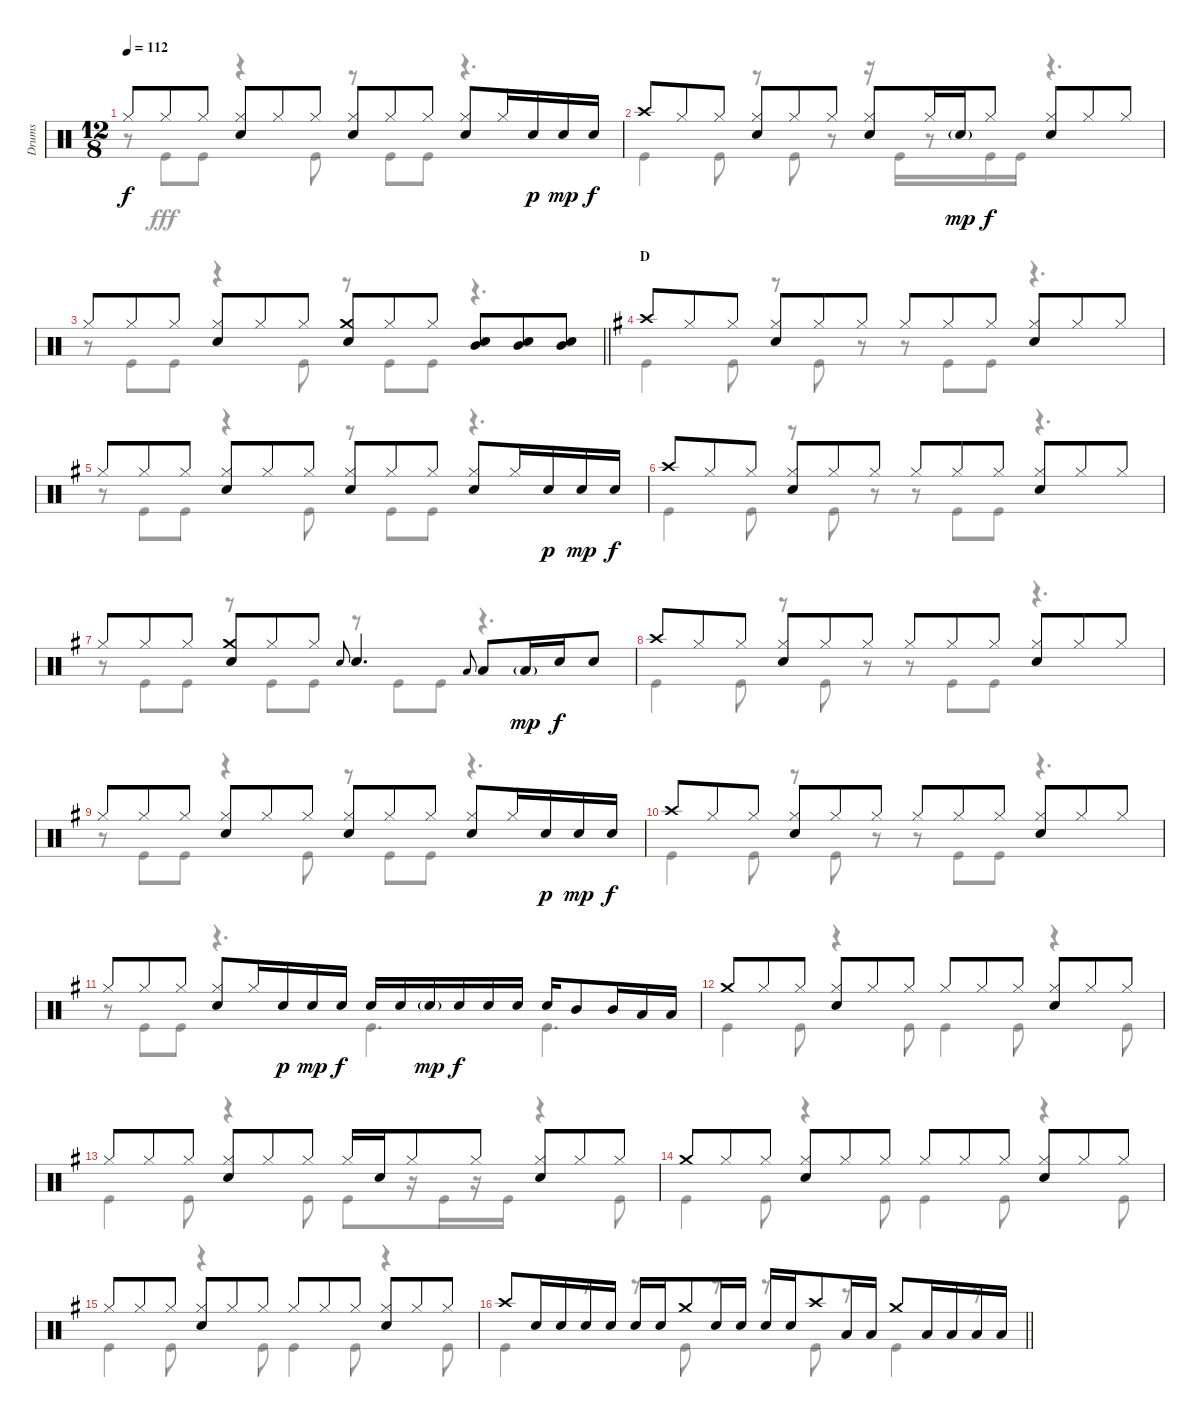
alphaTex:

\track ("Drums" "Drums") {instrument percussion}
\staff {score}
\articulation defaults
\voice
\ts (12 8)
\tempo 112
\clef neutral
\ks c "Hi-Hat (closed)".8{dy f} "Hi-Hat (closed)".8 "Hi-Hat (closed)".8
("Hi-Hat (closed)" "Snare (hit) 2").8 "Hi-Hat (closed)".8 "Hi-Hat (closed)".8 ("Hi-Hat (closed)" "Snare (hit) 2").8 "Hi-Hat (closed)".8 "Hi-Hat (closed)".8 ("Hi-Hat (closed)" "Snare (hit) 2").8 "Hi-Hat (closed)".16 "Snare (hit) 2".16{dy p} "Snare (hit) 2".16{dy mp} "Snare (hit) 2".16{dy f} |
"Crash high (hit)".8 "Hi-Hat (closed)".8 "Hi-Hat (closed)".8 ("Hi-Hat (closed)" "Snare (hit) 2").8 "Hi-Hat (closed)".8 "Hi-Hat (closed)".8 ("Hi-Hat (closed)" "Snare (hit) 2").8 "Hi-Hat (closed)".16 "Snare (hit) 2"{g}.16{dy mp} "Hi-Hat (closed)".8{dy f} ("Hi-Hat (closed)" "Snare (hit) 2").8 "Hi-Hat (closed)".8 "Hi-Hat (closed)".8 |
\barLineRight lightlight "Hi-Hat (closed)".8 "Hi-Hat (closed)".8 "Hi-Hat (closed)".8
("Hi-Hat (closed)" "Snare (hit) 2").8 "Hi-Hat (closed)".8 "Hi-Hat (closed)".8 ("Crash medium (hit)" "Snare (hit) 2").8 "Hi-Hat (closed)".8 "Hi-Hat (closed)".8 ("Mid Tom (hit)" "Snare (hit) 2").8 ("Mid Tom (hit)" "Snare (hit) 2").8 ("Mid Tom (hit)" "Snare (hit) 2").8 |
\section ("" "D")
\ks g "Crash high (hit)".8 "Hi-Hat (closed)".8 "Hi-Hat (closed)".8
("Hi-Hat (closed)" "Snare (hit) 2").8 "Hi-Hat (closed)".8 "Hi-Hat (closed)".8 "Hi-Hat (closed)".8 "Hi-Hat (closed)".8 "Hi-Hat (closed)".8 ("Hi-Hat (closed)" "Snare (hit) 2").8 "Hi-Hat (closed)".8 "Hi-Hat (closed)".8 |
"Hi-Hat (closed)".8 "Hi-Hat (closed)".8 "Hi-Hat (closed)".8 ("Hi-Hat (closed)" "Snare (hit) 2").8 "Hi-Hat (closed)".8 "Hi-Hat (closed)".8 ("Hi-Hat (closed)" "Snare (hit) 2").8 "Hi-Hat (closed)".8 "Hi-Hat (closed)".8 ("Hi-Hat (closed)" "Snare (hit) 2").8 "Hi-Hat (closed)".16 "Snare (hit) 2".16{dy p} "Snare (hit) 2".16{dy mp} "Snare (hit) 2".16{dy f} |
"Crash high (hit)".8 "Hi-Hat (closed)".8 "Hi-Hat (closed)".8 ("Hi-Hat (closed)" "Snare (hit) 2").8 "Hi-Hat (closed)".8 "Hi-Hat (closed)".8 "Hi-Hat (closed)".8 "Hi-Hat (closed)".8 "Hi-Hat (closed)".8 ("Hi-Hat (closed)" "Snare (hit) 2").8 "Hi-Hat (closed)".8 "Hi-Hat (closed)".8 |
"Hi-Hat (closed)".8 "Hi-Hat (closed)".8 "Hi-Hat (closed)".8 ("Crash medium (hit)" "Snare (hit) 2").8 "Hi-Hat (closed)".8 "Hi-Hat (closed)".8 "Snare (hit) 2".8{gr onbeat} "Snare (hit) 2".4{d} "Low Tom (hit)".8{gr onbeat} "Low Tom (hit)".8 "Low Tom (hit)"{g}.16{dy mp} "Snare (hit) 2".16{dy f} "Snare (hit) 2".8 |
"Crash high (hit)".8 "Hi-Hat (closed)".8 "Hi-Hat (closed)".8 ("Hi-Hat (closed)" "Snare (hit) 2").8 "Hi-Hat (closed)".8 "Hi-Hat (closed)".8 "Hi-Hat (closed)".8 "Hi-Hat (closed)".8 "Hi-Hat (closed)".8 ("Hi-Hat (closed)" "Snare (hit) 2").8 "Hi-Hat (closed)".8 "Hi-Hat (closed)".8 |
"Hi-Hat (closed)".8 "Hi-Hat (closed)".8 "Hi-Hat (closed)".8 ("Hi-Hat (closed)" "Snare (hit) 2").8 "Hi-Hat (closed)".8 "Hi-Hat (closed)".8 ("Hi-Hat (closed)" "Snare (hit) 2").8 "Hi-Hat (closed)".8 "Hi-Hat (closed)".8 ("Hi-Hat (closed)" "Snare (hit) 2").8 "Hi-Hat (closed)".16 "Snare (hit) 2".16{dy p} "Snare (hit) 2".16{dy mp} "Snare (hit) 2".16{dy f} |
"Crash high (hit)".8 "Hi-Hat (closed)".8 "Hi-Hat (closed)".8 ("Hi-Hat (closed)" "Snare (hit) 2").8 "Hi-Hat (closed)".8 "Hi-Hat (closed)".8 "Hi-Hat (closed)".8 "Hi-Hat (closed)".8 "Hi-Hat (closed)".8 ("Hi-Hat (closed)" "Snare (hit) 2").8 "Hi-Hat (closed)".8 "Hi-Hat (closed)".8 |
"Hi-Hat (closed)".8 "Hi-Hat (closed)".8 "Hi-Hat (closed)".8 ("Hi-Hat (closed)" "Snare (hit) 2").8 "Hi-Hat (closed)".16 "Snare (hit) 2".16{dy p} "Snare (hit) 2".16{dy mp} "Snare (hit) 2".16{dy f} "Snare (hit) 2".16 "Snare (hit) 2".16 "Snare (hit) 2"{g}.16{dy mp} "Snare (hit) 2".16{dy f} "Snare (hit) 2".16 "Snare (hit) 2".16 "Snare (hit) 2".16 "Mid Tom (hit)".8 "Mid Tom (hit)".16 "Low Tom (hit)".16 "Low Tom (hit)".16 |
"Crash medium (hit)".8 "Hi-Hat (closed)".8 "Hi-Hat (closed)".8 ("Hi-Hat (closed)" "Snare (hit) 2").8 "Hi-Hat (closed)".8 "Hi-Hat (closed)".8 "Hi-Hat (closed)".8 "Hi-Hat (closed)".8 "Hi-Hat (closed)".8 ("Hi-Hat (closed)" "Snare (hit) 2").8 "Hi-Hat (closed)".8 "Hi-Hat (closed)".8 |
"Hi-Hat (closed)".8 "Hi-Hat (closed)".8 "Hi-Hat (closed)".8 ("Hi-Hat (closed)" "Snare (hit) 2").8 "Hi-Hat (closed)".8 "Hi-Hat (closed)".8 "Hi-Hat (closed)".16 "Snare (hit) 2".16 "Hi-Hat (closed)".8 "Hi-Hat (closed)".8 ("Hi-Hat (closed)" "Snare (hit) 2").8 "Hi-Hat (closed)".8 "Hi-Hat (closed)".8 |
"Crash medium (hit)".8 "Hi-Hat (closed)".8 "Hi-Hat (closed)".8 ("Hi-Hat (closed)" "Snare (hit) 2").8 "Hi-Hat (closed)".8 "Hi-Hat (closed)".8 "Hi-Hat (closed)".8 "Hi-Hat (closed)".8 "Hi-Hat (closed)".8 ("Hi-Hat (closed)" "Snare (hit) 2").8 "Hi-Hat (closed)".8 "Hi-Hat (closed)".8 |
"Hi-Hat (closed)".8 "Hi-Hat (closed)".8 "Hi-Hat (closed)".8 ("Hi-Hat (closed)" "Snare (hit) 2").8 "Hi-Hat (closed)".8 "Hi-Hat (closed)".8 "Hi-Hat (closed)".8 "Hi-Hat (closed)".8 "Hi-Hat (closed)".8 ("Hi-Hat (closed)" "Snare (hit) 2").8 "Hi-Hat (closed)".8 "Hi-Hat (closed)".8 |
\barLineRight lightlight "Crash high (hit)".8 "Snare (hit) 2".16 "Snare (hit) 2".16 "Snare (hit) 2".16 "Snare (hit) 2".16 "Snare (hit) 2".16 "Snare (hit) 2".16 "Crash medium (hit)".8 "Snare (hit) 2".16 "Snare (hit) 2".16 "Snare (hit) 2".16 "Snare (hit) 2".16 "Crash high (hit)".8 "Low Tom (hit)".16 "Low Tom (hit)".16 "Crash medium (hit)".8 "Low Tom (hit)".16 "Low Tom (hit)".16 "Low Tom (hit)".16 "Low Tom (hit)".16
\voice
\clef neutral
\ottava regular
\simile none
\ks c
r.8{dy fff} "Kick (hit)".8 "Kick (hit)".8 r.4 "Kick (hit)".8 r.8 "Kick (hit)".8 "Kick (hit)".8 r.4{d} |
"Kick (hit)".4 "Kick (hit)".8 r.8 "Kick (hit)".8 r.8 r.16 "Kick (hit)".16 r.8 "Kick (hit)".16 "Kick (hit)".16 r.4{d} |
\barLineRight lightlight
r.8 "Kick (hit)".8 "Kick (hit)".8 r.4 "Kick (hit)".8 r.8 "Kick (hit)".8 "Kick (hit)".8 r.4{d} |
\ks g "Kick (hit)".4 "Kick (hit)".8
r.8 "Kick (hit)".8 r.8 r.8 "Kick (hit)".8 "Kick (hit)".8 r.4{d} |
r.8 "Kick (hit)".8 "Kick (hit)".8 r.4 "Kick (hit)".8 r.8 "Kick (hit)".8 "Kick (hit)".8 r.4{d} |
"Kick (hit)".4 "Kick (hit)".8 r.8 "Kick (hit)".8 r.8 r.8 "Kick (hit)".8 "Kick (hit)".8 r.4{d} |
r.8 "Kick (hit)".8 "Kick (hit)".8 r.8 "Kick (hit)".8 "Kick (hit)".8 r.8 "Kick (hit)".8 "Kick (hit)".8 r.4{d} |
"Kick (hit)".4 "Kick (hit)".8 r.8 "Kick (hit)".8 r.8 r.8 "Kick (hit)".8 "Kick (hit)".8 r.4{d} |
r.8 "Kick (hit)".8 "Kick (hit)".8 r.4 "Kick (hit)".8 r.8 "Kick (hit)".8 "Kick (hit)".8 r.4{d} |
"Kick (hit)".4 "Kick (hit)".8 r.8 "Kick (hit)".8 r.8 r.8 "Kick (hit)".8 "Kick (hit)".8 r.4{d} |
r.8 "Kick (hit)".8 "Kick (hit)".8 r.4{d} "Kick (hit)".4{d} "Kick (hit)".4{d} |
"Kick (hit)".4 "Kick (hit)".8 r.4 "Kick (hit)".8 "Kick (hit)".4 "Kick (hit)".8 r.4 "Kick (hit)".8 |
"Kick (hit)".4 "Kick (hit)".8 r.4 "Kick (hit)".8 "Kick (hit)".8 r.16 "Kick (hit)".16 r.16 "Kick (hit)".16 r.4 "Kick (hit)".8 |
"Kick (hit)".4 "Kick (hit)".8 r.4 "Kick (hit)".8 "Kick (hit)".4 "Kick (hit)".8 r.4 "Kick (hit)".8 |
"Kick (hit)".4 "Kick (hit)".8 r.4 "Kick (hit)".8 "Kick (hit)".4 "Kick (hit)".8 r.4 "Kick (hit)".8 |
\barLineRight lightlight "Kick (hit)".4
r.8 r.8 "Kick (hit)".8 r.8 r.8 "Kick (hit)".8 r.8 "Kick (hit)".4 r.8
